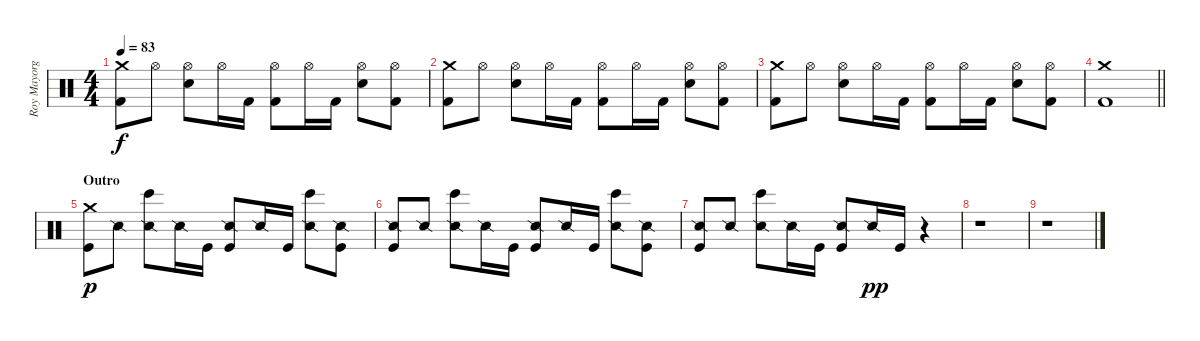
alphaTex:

\track ("Roy Mayorga" "Roy Mayorg") {instrument percussion}
\staff {score}
\articulation defaults
\ts (4 4)
\tempo 83
\clef neutral
\ks c
("Crash medium (hit)" "Kick (hit) 2").8{dy f} "Hi-Hat (open)".8 ("Hi-Hat (open)" "Electric Snare (hit)").8 "Hi-Hat (open)".16 "Kick (hit) 2".16 ("Kick (hit) 2" "Hi-Hat (open)").8 "Hi-Hat (open)".16 "Kick (hit) 2".16 ("Electric Snare (hit)" "Hi-Hat (open)").8 ("Hi-Hat (open)" "Kick (hit) 2").8 |
("Crash medium (hit)" "Kick (hit) 2").8 "Hi-Hat (open)".8 ("Hi-Hat (open)" "Electric Snare (hit)").8 "Hi-Hat (open)".16 "Kick (hit) 2".16 ("Kick (hit) 2" "Hi-Hat (open)").8 "Hi-Hat (open)".16 "Kick (hit) 2".16 ("Electric Snare (hit)" "Hi-Hat (open)").8 ("Hi-Hat (open)" "Kick (hit) 2").8 |
("Crash medium (hit)" "Kick (hit) 2").8 "Hi-Hat (open)".8 ("Hi-Hat (open)" "Electric Snare (hit)").8 "Hi-Hat (open)".16 "Kick (hit) 2".16 ("Kick (hit) 2" "Hi-Hat (open)").8 "Hi-Hat (open)".16 "Kick (hit) 2".16 ("Electric Snare (hit)" "Hi-Hat (open)").8 ("Hi-Hat (open)" "Kick (hit) 2").8 |
\barLineRight lightlight
("Crash medium (hit)" "Kick (hit) 2").1 |
\section ("" "Outro")
("Crash medium (hit)" "Kick (hit)").8{dy p} "Snare (side stick) 2".8 ("Snare (side stick) 2" "Bongo High (hit)").8 "Snare (side stick) 2".16 "Kick (hit)".16 ("Kick (hit)" "Snare (side stick) 2").8 "Snare (side stick) 2".16 "Kick (hit)".16 ("Bongo High (hit)" "Snare (side stick) 2").8 ("Kick (hit)" "Snare (side stick) 2").8 |
("Snare (side stick) 2" "Kick (hit)").8 "Snare (side stick) 2".8 ("Snare (side stick) 2" "Bongo High (hit)").8 "Snare (side stick) 2".16 "Kick (hit)".16 ("Kick (hit)" "Snare (side stick) 2").8 "Snare (side stick) 2".16 "Kick (hit)".16 ("Bongo High (hit)" "Snare (side stick) 2").8 ("Snare (side stick) 2" "Kick (hit)").8 |
("Snare (side stick) 2" "Kick (hit)").8 "Snare (side stick) 2".8 ("Snare (side stick) 2" "Bongo High (hit)").8 "Snare (side stick) 2".16 "Kick (hit)".16 ("Kick (hit)" "Snare (side stick) 2").8 "Snare (side stick) 2".16{dy pp} "Kick (hit)".16 r.4 |
r.1 |
r.1
